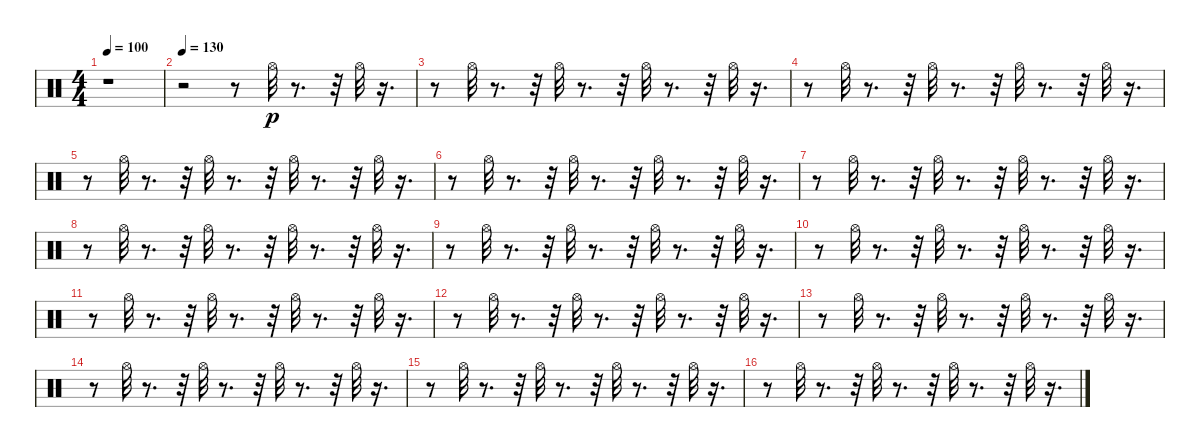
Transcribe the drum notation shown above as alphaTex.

\track "" {instrument percussion}
\staff {score}
\articulation defaults
\ts (4 4)
\tempo 100
\clef neutral
\ks c
r.1{dy p} |
\tempo 130
r.2 r.8 "Hi-Hat (open)".32 r.8{d} r.32 "Hi-Hat (open)".32 r.16{d} |
r.8 "Hi-Hat (open)".32 r.8{d} r.32 "Hi-Hat (open)".32 r.8{d} r.32 "Hi-Hat (open)".32 r.8{d} r.32 "Hi-Hat (open)".32 r.16{d} |
r.8 "Hi-Hat (open)".32 r.8{d} r.32 "Hi-Hat (open)".32 r.8{d} r.32 "Hi-Hat (open)".32 r.8{d} r.32 "Hi-Hat (open)".32 r.16{d} |
r.8 "Hi-Hat (open)".32 r.8{d} r.32 "Hi-Hat (open)".32 r.8{d} r.32 "Hi-Hat (open)".32 r.8{d} r.32 "Hi-Hat (open)".32 r.16{d} |
r.8 "Hi-Hat (open)".32 r.8{d} r.32 "Hi-Hat (open)".32 r.8{d} r.32 "Hi-Hat (open)".32 r.8{d} r.32 "Hi-Hat (open)".32 r.16{d} |
r.8 "Hi-Hat (open)".32 r.8{d} r.32 "Hi-Hat (open)".32 r.8{d} r.32 "Hi-Hat (open)".32 r.8{d} r.32 "Hi-Hat (open)".32 r.16{d} |
r.8 "Hi-Hat (open)".32 r.8{d} r.32 "Hi-Hat (open)".32 r.8{d} r.32 "Hi-Hat (open)".32 r.8{d} r.32 "Hi-Hat (open)".32 r.16{d} |
r.8 "Hi-Hat (open)".32 r.8{d} r.32 "Hi-Hat (open)".32 r.8{d} r.32 "Hi-Hat (open)".32 r.8{d} r.32 "Hi-Hat (open)".32 r.16{d} |
r.8 "Hi-Hat (open)".32 r.8{d} r.32 "Hi-Hat (open)".32 r.8{d} r.32 "Hi-Hat (open)".32 r.8{d} r.32 "Hi-Hat (open)".32 r.16{d} |
r.8 "Hi-Hat (open)".32 r.8{d} r.32 "Hi-Hat (open)".32 r.8{d} r.32 "Hi-Hat (open)".32 r.8{d} r.32 "Hi-Hat (open)".32 r.16{d} |
r.8 "Hi-Hat (open)".32 r.8{d} r.32 "Hi-Hat (open)".32 r.8{d} r.32 "Hi-Hat (open)".32 r.8{d} r.32 "Hi-Hat (open)".32 r.16{d} |
r.8 "Hi-Hat (open)".32 r.8{d} r.32 "Hi-Hat (open)".32 r.8{d} r.32 "Hi-Hat (open)".32 r.8{d} r.32 "Hi-Hat (open)".32 r.16{d} |
r.8 "Hi-Hat (open)".32 r.8{d} r.32 "Hi-Hat (open)".32 r.8{d} r.32 "Hi-Hat (open)".32 r.8{d} r.32 "Hi-Hat (open)".32 r.16{d} |
r.8 "Hi-Hat (open)".32 r.8{d} r.32 "Hi-Hat (open)".32 r.8{d} r.32 "Hi-Hat (open)".32 r.8{d} r.32 "Hi-Hat (open)".32 r.16{d} |
r.8 "Hi-Hat (open)".32 r.8{d} r.32 "Hi-Hat (open)".32 r.8{d} r.32 "Hi-Hat (open)".32 r.8{d} r.32 "Hi-Hat (open)".32 r.16{d}
